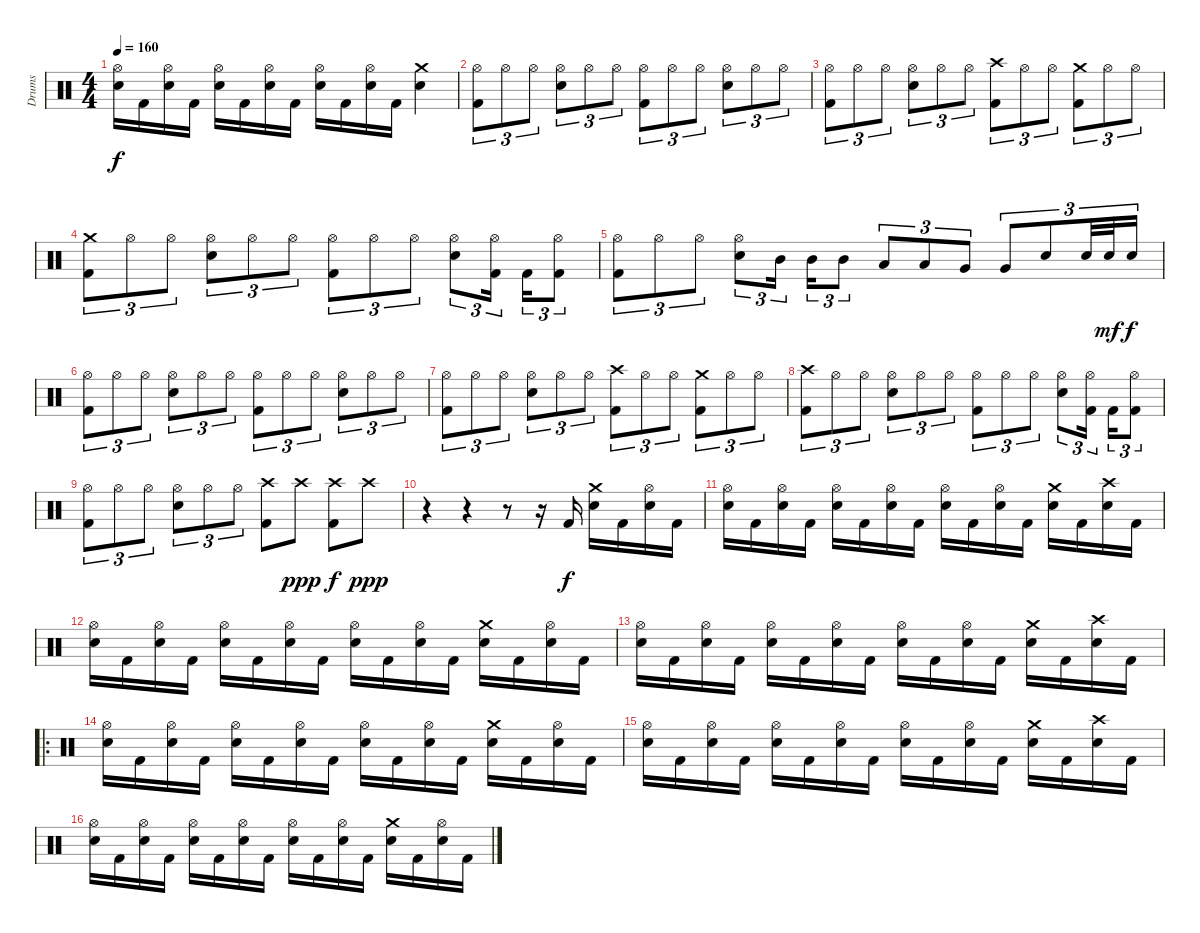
\track ("Drums" "Drums") {instrument percussion}
\staff {score}
\articulation defaults
\ts (4 4)
\tempo 160
\clef neutral
\ks c
("Hi-Hat (open)" "Electric Snare (hit)").16{dy f} "Kick (hit) 2".16 ("Hi-Hat (open)" "Electric Snare (hit)").16 "Kick (hit) 2".16 ("Hi-Hat (open)" "Electric Snare (hit)").16 "Kick (hit) 2".16 ("Hi-Hat (open)" "Electric Snare (hit)").16 "Kick (hit) 2".16 ("Hi-Hat (open)" "Electric Snare (hit)").16 "Kick (hit) 2".16 ("Hi-Hat (open)" "Electric Snare (hit)").16 "Kick (hit) 2".16 ("Crash medium (hit)" "Electric Snare (hit)").4 |
("Hi-Hat (open)" "Kick (hit) 2").8{tu (3 2)} "Hi-Hat (open)".8{tu (3 2)} "Hi-Hat (open)".8{tu (3 2)} ("Hi-Hat (open)" "Electric Snare (hit)").8{tu (3 2)} "Hi-Hat (open)".8{tu (3 2)} "Hi-Hat (open)".8{tu (3 2)} ("Hi-Hat (open)" "Kick (hit) 2").8{tu (3 2)} "Hi-Hat (open)".8{tu (3 2)} "Hi-Hat (open)".8{tu (3 2)} ("Hi-Hat (open)" "Electric Snare (hit)").8{tu (3 2)} "Hi-Hat (open)".8{tu (3 2)} "Hi-Hat (open)".8{tu (3 2)} |
("Hi-Hat (open)" "Kick (hit) 2").8{tu (3 2)} "Hi-Hat (open)".8{tu (3 2)} "Hi-Hat (open)".8{tu (3 2)} ("Hi-Hat (open)" "Electric Snare (hit)").8{tu (3 2)} "Hi-Hat (open)".8{tu (3 2)} "Hi-Hat (open)".8{tu (3 2)} ("Crash high (hit)" "Kick (hit) 2").8{tu (3 2)} "Hi-Hat (open)".8{tu (3 2)} "Hi-Hat (open)".8{tu (3 2)} ("Crash medium (hit)" "Kick (hit) 2").8{tu (3 2)} "Hi-Hat (open)".8{tu (3 2)} "Hi-Hat (open)".8{tu (3 2)} |
("Crash medium (hit)" "Kick (hit) 2").8{tu (3 2)} "Hi-Hat (open)".8{tu (3 2)} "Hi-Hat (open)".8{tu (3 2)} ("Hi-Hat (open)" "Electric Snare (hit)").8{tu (3 2)} "Hi-Hat (open)".8{tu (3 2)} "Hi-Hat (open)".8{tu (3 2)} ("Hi-Hat (open)" "Kick (hit) 2").8{tu (3 2)} "Hi-Hat (open)".8{tu (3 2)} "Hi-Hat (open)".8{tu (3 2)} ("Hi-Hat (open)" "Electric Snare (hit)").8{tu (3 2)} ("Hi-Hat (open)" "Kick (hit) 2").16{tu (3 2)} "Kick (hit) 2".16{tu (3 2)} ("Hi-Hat (open)" "Kick (hit) 2").8{tu (3 2)} |
("Hi-Hat (open)" "Kick (hit) 2").8{tu (3 2)} "Hi-Hat (open)".8{tu (3 2)} "Hi-Hat (open)".8{tu (3 2)} ("Hi-Hat (open)" "Electric Snare (hit)").8{tu (3 2)} "Mid Tom (hit)".16{tu (3 2)} "Mid Tom (hit)".16{tu (3 2)} "Mid Tom (hit)".8{tu (3 2)} "Low Tom (hit)".8{tu (3 2)} "Low Tom (hit)".8{tu (3 2)} "Very Low Tom (hit)".8{tu (3 2)} "Very Low Tom (hit)".8{tu (3 2)} "Electric Snare (hit)".8{tu (3 2)} "Electric Snare (hit)".32{tu (3 2)} "Electric Snare (hit)".32{tu (3 2) dy mf} "Electric Snare (hit)".16{tu (3 2) dy f} |
("Hi-Hat (open)" "Kick (hit) 2").8{tu (3 2)} "Hi-Hat (open)".8{tu (3 2)} "Hi-Hat (open)".8{tu (3 2)} ("Hi-Hat (open)" "Electric Snare (hit)").8{tu (3 2)} "Hi-Hat (open)".8{tu (3 2)} "Hi-Hat (open)".8{tu (3 2)} ("Hi-Hat (open)" "Kick (hit) 2").8{tu (3 2)} "Hi-Hat (open)".8{tu (3 2)} "Hi-Hat (open)".8{tu (3 2)} ("Hi-Hat (open)" "Electric Snare (hit)").8{tu (3 2)} "Hi-Hat (open)".8{tu (3 2)} "Hi-Hat (open)".8{tu (3 2)} |
("Hi-Hat (open)" "Kick (hit) 2").8{tu (3 2)} "Hi-Hat (open)".8{tu (3 2)} "Hi-Hat (open)".8{tu (3 2)} ("Hi-Hat (open)" "Electric Snare (hit)").8{tu (3 2)} "Hi-Hat (open)".8{tu (3 2)} "Hi-Hat (open)".8{tu (3 2)} ("Crash high (hit)" "Kick (hit) 2").8{tu (3 2)} "Hi-Hat (open)".8{tu (3 2)} "Hi-Hat (open)".8{tu (3 2)} ("Crash medium (hit)" "Kick (hit) 2").8{tu (3 2)} "Hi-Hat (open)".8{tu (3 2)} "Hi-Hat (open)".8{tu (3 2)} |
("Crash high (hit)" "Kick (hit) 2").8{tu (3 2)} "Hi-Hat (open)".8{tu (3 2)} "Hi-Hat (open)".8{tu (3 2)} ("Hi-Hat (open)" "Electric Snare (hit)").8{tu (3 2)} "Hi-Hat (open)".8{tu (3 2)} "Hi-Hat (open)".8{tu (3 2)} ("Hi-Hat (open)" "Kick (hit) 2").8{tu (3 2)} "Hi-Hat (open)".8{tu (3 2)} "Hi-Hat (open)".8{tu (3 2)} ("Hi-Hat (open)" "Electric Snare (hit)").8{tu (3 2)} ("Hi-Hat (open)" "Kick (hit) 2").16{tu (3 2)} "Kick (hit) 2".16{tu (3 2)} ("Hi-Hat (open)" "Kick (hit) 2").8{tu (3 2)} |
("Hi-Hat (open)" "Kick (hit) 2").8{tu (3 2)} "Hi-Hat (open)".8{tu (3 2)} "Hi-Hat (open)".8{tu (3 2)} ("Hi-Hat (open)" "Electric Snare (hit)").8{tu (3 2)} "Hi-Hat (open)".8{tu (3 2)} "Hi-Hat (open)".8{tu (3 2)} ("Crash high (hit)" "Kick (hit) 2").8 "Crash high (hit)".8{dy ppp} ("Crash high (hit)" "Kick (hit) 2").8{dy f} "Crash high (hit)".8{dy ppp} |
r.4 r.4 r.8 r.16 "Kick (hit) 2".16{dy f} ("Crash medium (hit)" "Electric Snare (hit)").16 "Kick (hit) 2".16 ("Hi-Hat (open)" "Electric Snare (hit)").16 "Kick (hit) 2".16 |
("Hi-Hat (open)" "Electric Snare (hit)").16 "Kick (hit) 2".16 ("Hi-Hat (open)" "Electric Snare (hit)").16 "Kick (hit) 2".16 ("Hi-Hat (open)" "Electric Snare (hit)").16 "Kick (hit) 2".16 ("Hi-Hat (open)" "Electric Snare (hit)").16 "Kick (hit) 2".16 ("Hi-Hat (open)" "Electric Snare (hit)").16 "Kick (hit) 2".16 ("Hi-Hat (open)" "Electric Snare (hit)").16 "Kick (hit) 2".16 ("Crash medium (hit)" "Electric Snare (hit)").16 "Kick (hit) 2".16 ("Crash high (hit)" "Electric Snare (hit)").16 "Kick (hit) 2".16 |
("Hi-Hat (open)" "Electric Snare (hit)").16 "Kick (hit) 2".16 ("Hi-Hat (open)" "Electric Snare (hit)").16 "Kick (hit) 2".16 ("Hi-Hat (open)" "Electric Snare (hit)").16 "Kick (hit) 2".16 ("Hi-Hat (open)" "Electric Snare (hit)").16 "Kick (hit) 2".16 ("Hi-Hat (open)" "Electric Snare (hit)").16 "Kick (hit) 2".16 ("Hi-Hat (open)" "Electric Snare (hit)").16 "Kick (hit) 2".16 ("Crash medium (hit)" "Electric Snare (hit)").16 "Kick (hit) 2".16 ("Hi-Hat (open)" "Electric Snare (hit)").16 "Kick (hit) 2".16 |
("Hi-Hat (open)" "Electric Snare (hit)").16 "Kick (hit) 2".16 ("Hi-Hat (open)" "Electric Snare (hit)").16 "Kick (hit) 2".16 ("Hi-Hat (open)" "Electric Snare (hit)").16 "Kick (hit) 2".16 ("Hi-Hat (open)" "Electric Snare (hit)").16 "Kick (hit) 2".16 ("Hi-Hat (open)" "Electric Snare (hit)").16 "Kick (hit) 2".16 ("Hi-Hat (open)" "Electric Snare (hit)").16 "Kick (hit) 2".16 ("Crash medium (hit)" "Electric Snare (hit)").16 "Kick (hit) 2".16 ("Crash high (hit)" "Electric Snare (hit)").16 "Kick (hit) 2".16 |
\ro
("Hi-Hat (open)" "Electric Snare (hit)").16 "Kick (hit) 2".16 ("Hi-Hat (open)" "Electric Snare (hit)").16 "Kick (hit) 2".16 ("Hi-Hat (open)" "Electric Snare (hit)").16 "Kick (hit) 2".16 ("Hi-Hat (open)" "Electric Snare (hit)").16 "Kick (hit) 2".16 ("Hi-Hat (open)" "Electric Snare (hit)").16 "Kick (hit) 2".16 ("Hi-Hat (open)" "Electric Snare (hit)").16 "Kick (hit) 2".16 ("Crash medium (hit)" "Electric Snare (hit)").16 "Kick (hit) 2".16 ("Hi-Hat (open)" "Electric Snare (hit)").16 "Kick (hit) 2".16 |
("Hi-Hat (open)" "Electric Snare (hit)").16 "Kick (hit) 2".16 ("Hi-Hat (open)" "Electric Snare (hit)").16 "Kick (hit) 2".16 ("Hi-Hat (open)" "Electric Snare (hit)").16 "Kick (hit) 2".16 ("Hi-Hat (open)" "Electric Snare (hit)").16 "Kick (hit) 2".16 ("Hi-Hat (open)" "Electric Snare (hit)").16 "Kick (hit) 2".16 ("Hi-Hat (open)" "Electric Snare (hit)").16 "Kick (hit) 2".16 ("Crash medium (hit)" "Electric Snare (hit)").16 "Kick (hit) 2".16 ("Crash high (hit)" "Electric Snare (hit)").16 "Kick (hit) 2".16 |
("Hi-Hat (open)" "Electric Snare (hit)").16 "Kick (hit) 2".16 ("Hi-Hat (open)" "Electric Snare (hit)").16 "Kick (hit) 2".16 ("Hi-Hat (open)" "Electric Snare (hit)").16 "Kick (hit) 2".16 ("Hi-Hat (open)" "Electric Snare (hit)").16 "Kick (hit) 2".16 ("Hi-Hat (open)" "Electric Snare (hit)").16 "Kick (hit) 2".16 ("Hi-Hat (open)" "Electric Snare (hit)").16 "Kick (hit) 2".16 ("Crash medium (hit)" "Electric Snare (hit)").16 "Kick (hit) 2".16 ("Hi-Hat (open)" "Electric Snare (hit)").16 "Kick (hit) 2".16
